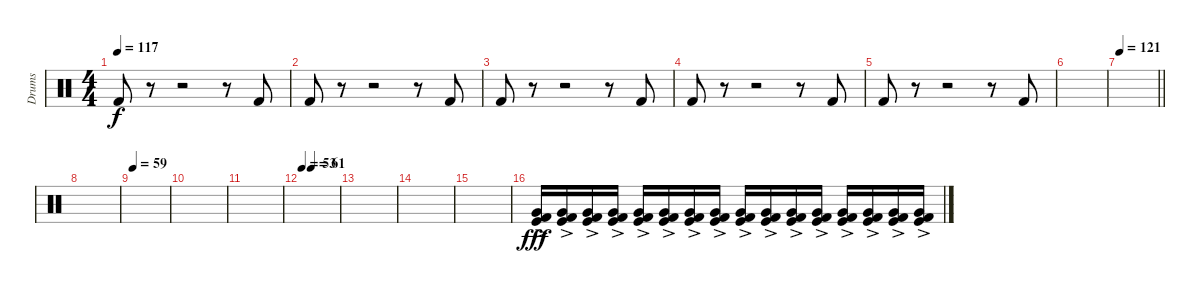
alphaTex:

\track ("Drums" "Drums") {instrument percussion}
\staff {score}
\articulation defaults
\ts (4 4)
\tempo 117
\clef neutral
\ks c "Kick (hit) 2".8{dy f}
r.8 r.2 r.8 "Kick (hit) 2".8 |
"Kick (hit) 2".8 r.8 r.2 r.8 "Kick (hit) 2".8 |
"Kick (hit) 2".8 r.8 r.2 r.8 "Kick (hit) 2".8 |
"Kick (hit) 2".8 r.8 r.2 r.8 "Kick (hit) 2".8 |
"Kick (hit) 2".8 r.8 r.2 r.8 "Kick (hit) 2".8 |
|
\tempo 121
\barLineRight lightlight
|
|
\tempo 59
|
|
|
\tempo 60
\tempo (61 0.25)
\tempo 53
|
|
|
|
("Very Low Tom (hit)"{ac} "Kick (hit)"{ac} "Kick (hit) 2"{ac}).16{dy fff volume 1} ("Very Low Tom (hit)"{ac} "Kick (hit)"{ac} "Kick (hit) 2"{ac}).16{volume 2} ("Very Low Tom (hit)"{ac} "Kick (hit)"{ac} "Kick (hit) 2"{ac}).16{volume 2} ("Very Low Tom (hit)"{ac} "Kick (hit)"{ac} "Kick (hit) 2"{ac}).16{volume 3} ("Very Low Tom (hit)"{ac} "Kick (hit)"{ac} "Kick (hit) 2"{ac}).16{volume 4} ("Very Low Tom (hit)"{ac} "Kick (hit)"{ac} "Kick (hit) 2"{ac}).16{volume 5} ("Very Low Tom (hit)"{ac} "Kick (hit)"{ac} "Kick (hit) 2"{ac}).16{volume 6} ("Very Low Tom (hit)"{ac} "Kick (hit)"{ac} "Kick (hit) 2"{ac}).16{volume 7} ("Very Low Tom (hit)"{ac} "Kick (hit)"{ac} "Kick (hit) 2"{ac}).16{volume 8} ("Very Low Tom (hit)"{ac} "Kick (hit)"{ac} "Kick (hit) 2"{ac}).16{volume 9} ("Very Low Tom (hit)"{ac} "Kick (hit)"{ac} "Kick (hit) 2"{ac}).16{volume 10} ("Very Low Tom (hit)"{ac} "Kick (hit)"{ac} "Kick (hit) 2"{ac}).16{volume 11} ("Very Low Tom (hit)"{ac} "Kick (hit)"{ac} "Kick (hit) 2"{ac}).16{volume 12} ("Very Low Tom (hit)"{ac} "Kick (hit)"{ac} "Kick (hit) 2"{ac}).16{volume 13} ("Very Low Tom (hit)"{ac} "Kick (hit)"{ac} "Kick (hit) 2"{ac}).16{volume 14} ("Very Low Tom (hit)"{ac} "Kick (hit)"{ac} "Kick (hit) 2"{ac}).16{volume 15}
